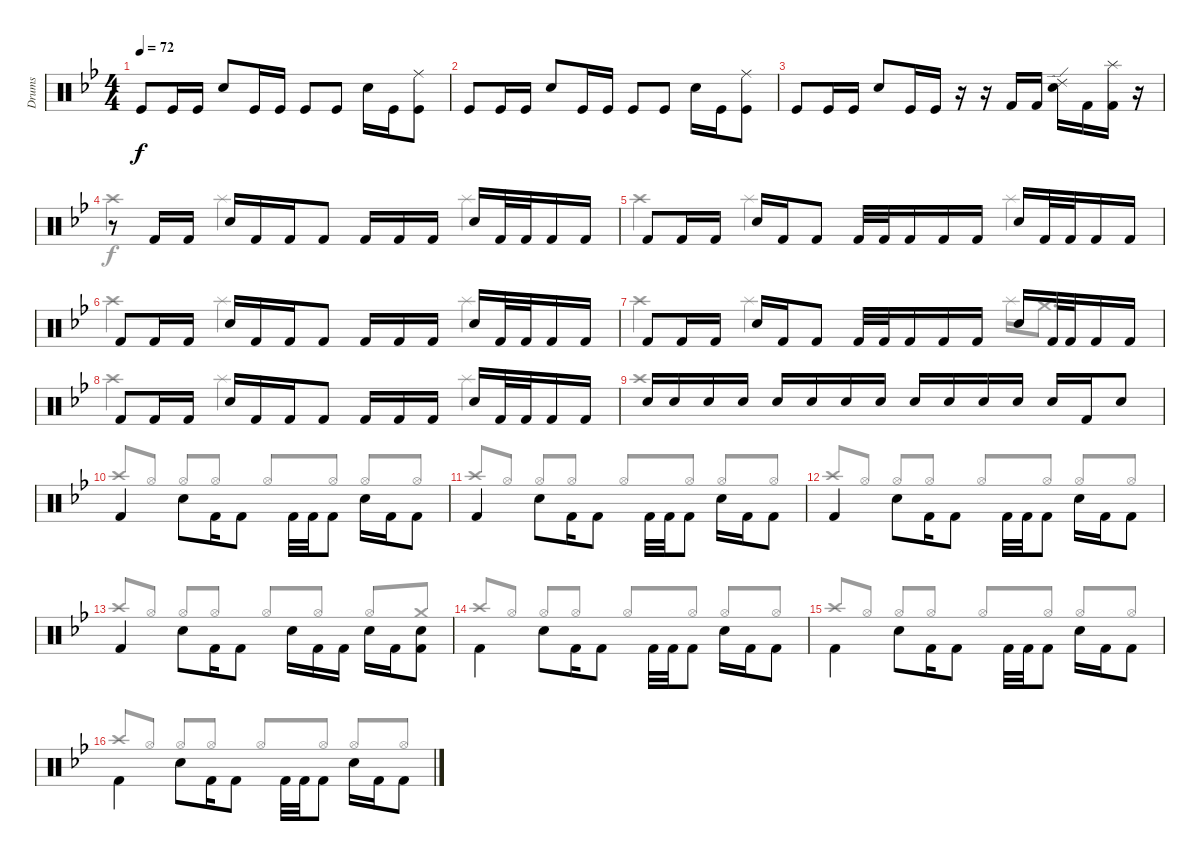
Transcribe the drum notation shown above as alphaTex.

\track ("Drums" "Drums") {instrument percussion}
\staff {score}
\articulation defaults
\voice
\ts (4 4)
\tempo 72
\clef neutral
\ks gminor "Kick (hit)".8{dy f} "Kick (hit)".16 "Kick (hit)".16 "Snare (hit) 2".8 "Kick (hit)".16 "Kick (hit)".16 "Kick (hit)".8 "Kick (hit)".8 "Snare (hit) 2".16 "Kick (hit)".16
("Ride (middle)" "Kick (hit)").8 |
"Kick (hit)".8 "Kick (hit)".16 "Kick (hit)".16 "Snare (hit) 2".8 "Kick (hit)".16 "Kick (hit)".16 "Kick (hit)".8 "Kick (hit)".8 "Snare (hit) 2".16 "Kick (hit)".16 ("Ride (middle)" "Kick (hit)").8 |
"Kick (hit)".8 "Kick (hit)".16 "Kick (hit)".16 "Snare (hit) 2".8 "Kick (hit)".16 "Kick (hit)".16 r.16 r.16 "Kick (hit) 2".16 "Kick (hit) 2".16 ("Ride (edge) 2" "Electric Snare (hit)").16 "Kick (hit) 2".16 ("Splash (hit)" "Kick (hit) 2").16 r.16 |
r.8 "Kick (hit) 2".16 "Kick (hit) 2".16 "Electric Snare (hit)".16 "Kick (hit) 2".16 "Kick (hit) 2".16 "Kick (hit) 2".8 "Kick (hit) 2".16 "Kick (hit) 2".16 "Kick (hit) 2".16 "Electric Snare (hit)".16 "Kick (hit) 2".32 "Kick (hit) 2".32 "Kick (hit) 2".16 "Kick (hit) 2".16 |
"Kick (hit) 2".8 "Kick (hit) 2".16 "Kick (hit) 2".16 "Electric Snare (hit)".16 "Kick (hit) 2".16 "Kick (hit) 2".8 "Kick (hit) 2".32 "Kick (hit) 2".32 "Kick (hit) 2".16 "Kick (hit) 2".16 "Kick (hit) 2".16 "Electric Snare (hit)".16 "Kick (hit) 2".32 "Kick (hit) 2".32 "Kick (hit) 2".16 "Kick (hit) 2".16 |
"Kick (hit) 2".8 "Kick (hit) 2".16 "Kick (hit) 2".16 "Electric Snare (hit)".16 "Kick (hit) 2".16 "Kick (hit) 2".16 "Kick (hit) 2".8 "Kick (hit) 2".16 "Kick (hit) 2".16 "Kick (hit) 2".16 "Electric Snare (hit)".16 "Kick (hit) 2".32 "Kick (hit) 2".32 "Kick (hit) 2".16 "Kick (hit) 2".16 |
"Kick (hit) 2".8 "Kick (hit) 2".16 "Kick (hit) 2".16 "Electric Snare (hit)".16 "Kick (hit) 2".16 "Kick (hit) 2".8 "Kick (hit) 2".32 "Kick (hit) 2".32 "Kick (hit) 2".16 "Kick (hit) 2".16 "Kick (hit) 2".16 "Electric Snare (hit)".16 "Kick (hit) 2".32 "Kick (hit) 2".32 "Kick (hit) 2".16 "Kick (hit) 2".16 |
"Kick (hit) 2".8 "Kick (hit) 2".16 "Kick (hit) 2".16 "Electric Snare (hit)".16 "Kick (hit) 2".16 "Kick (hit) 2".16 "Kick (hit) 2".8 "Kick (hit) 2".16 "Kick (hit) 2".16 "Kick (hit) 2".16 "Electric Snare (hit)".16 "Kick (hit) 2".32 "Kick (hit) 2".32 "Kick (hit) 2".16 "Kick (hit) 2".16 |
"Snare (hit) 2".16{volume 6} "Snare (hit) 2".16{volume 11} "Snare (hit) 2".16 "Snare (hit) 2".16 "Snare (hit) 2".16 "Snare (hit) 2".16 "Snare (hit) 2".16 "Snare (hit) 2".16 "Snare (hit) 2".16 "Snare (hit) 2".16 "Snare (hit) 2".16 "Snare (hit) 2".16 "Snare (hit) 2".16 "Kick (hit) 2".16 "Electric Snare (hit)".8 |
"Kick (hit) 2".4{beam Up} "Electric Snare (hit)".8{beam Down} "Kick (hit) 2".16{beam Down} "Kick (hit) 2".8{beam Down} "Kick (hit) 2".32{beam Down} "Kick (hit) 2".32{beam Down} "Kick (hit) 2".8{beam Down} "Electric Snare (hit)".16{beam Down} "Kick (hit) 2".16{beam Down} "Kick (hit) 2".8{beam Down} |
"Kick (hit) 2".4{beam Up} "Electric Snare (hit)".8{beam Down} "Kick (hit) 2".16{beam Down} "Kick (hit) 2".8{beam Down} "Kick (hit) 2".32{beam Down} "Kick (hit) 2".32{beam Down} "Kick (hit) 2".8{beam Down} "Electric Snare (hit)".16{beam Down} "Kick (hit) 2".16{beam Down} "Kick (hit) 2".8{beam Down} |
"Kick (hit) 2".4{beam Up} "Electric Snare (hit)".8{beam Down} "Kick (hit) 2".16{beam Down} "Kick (hit) 2".8{beam Down} "Kick (hit) 2".32{beam Down} "Kick (hit) 2".32{beam Down} "Kick (hit) 2".8{beam Down} "Electric Snare (hit)".16{beam Down} "Kick (hit) 2".16{beam Down} "Kick (hit) 2".8{beam Down} |
"Kick (hit) 2".4{beam Up} "Electric Snare (hit)".8{beam Down} "Kick (hit) 2".16{beam Down} "Kick (hit) 2".8{beam Down} "Electric Snare (hit)".16{beam Down} "Kick (hit) 2".16{beam Down} "Kick (hit) 2".16{beam Down} "Electric Snare (hit)".16{beam Down} "Kick (hit) 2".16{beam Down} ("Electric Snare (hit)" "Kick (hit) 2").8{beam Down} |
"Kick (hit) 2".4{beam Down} "Electric Snare (hit)".8{beam Down} "Kick (hit) 2".16{beam Down} "Kick (hit) 2".8{beam Down} "Kick (hit) 2".32{beam Down} "Kick (hit) 2".32{beam Down} "Kick (hit) 2".8{beam Down} "Electric Snare (hit)".16{beam Down} "Kick (hit) 2".16{beam Down} "Kick (hit) 2".8{beam Down} |
"Kick (hit) 2".4{beam Down} "Electric Snare (hit)".8{beam Down} "Kick (hit) 2".16{beam Down} "Kick (hit) 2".8{beam Down} "Kick (hit) 2".32{beam Down} "Kick (hit) 2".32{beam Down} "Kick (hit) 2".8{beam Down} "Electric Snare (hit)".16{beam Down} "Kick (hit) 2".16{beam Down} "Kick (hit) 2".8{beam Down} |
"Kick (hit) 2".4{beam Down} "Electric Snare (hit)".8{beam Down} "Kick (hit) 2".16{beam Down} "Kick (hit) 2".8{beam Down} "Kick (hit) 2".32{beam Down} "Kick (hit) 2".32{beam Down} "Kick (hit) 2".8{beam Down} "Electric Snare (hit)".16{beam Down} "Kick (hit) 2".16{beam Down} "Kick (hit) 2".8{beam Down}
\voice
\clef neutral
\ottava regular
\simile none
\ks gminor
|
|
|
"Crash high (hit)".4 "Splash (hit)".2 "Splash (hit)".4 |
"Crash high (hit)".4 "Splash (hit)".2 "Splash (hit)".4 |
"Crash high (hit)".4 "Splash (hit)".2 "Splash (hit)".4 |
"Crash high (hit)".4 "Splash (hit)".2 "Splash (hit)".16 "Crash medium (hit)".8{d} |
"Crash high (hit)".4 "Splash (hit)".2 "Splash (hit)".4 |
"Crash high (hit)".1 |
"Crash high (hit)".8{beam Up} "Hi-Hat (open)".8{beam Up} "Hi-Hat (open)".8{beam Up} "Hi-Hat (open)".8{beam Up} "Hi-Hat (open)".8{beam Up} "Hi-Hat (open)".8{beam Up} "Hi-Hat (open)".8{beam Up} "Hi-Hat (open)".8{beam Up} |
"Crash high (hit)".8{beam Up} "Hi-Hat (open)".8{beam Up} "Hi-Hat (open)".8{beam Up} "Hi-Hat (open)".8{beam Up} "Hi-Hat (open)".8{beam Up} "Hi-Hat (open)".8{beam Up} "Hi-Hat (open)".8{beam Up} "Hi-Hat (open)".8{beam Up} |
"Crash high (hit)".8{beam Up} "Hi-Hat (open)".8{beam Up} "Hi-Hat (open)".8{beam Up} "Hi-Hat (open)".8{beam Up} "Hi-Hat (open)".8{beam Up} "Hi-Hat (open)".8{beam Up} "Hi-Hat (open)".8{beam Up} "Hi-Hat (open)".8{beam Up} |
"Crash high (hit)".8{beam Up} "Hi-Hat (open)".8{beam Up} "Hi-Hat (open)".8{beam Up} "Hi-Hat (open)".8{beam Up} "Hi-Hat (open)".8{beam Up} "Hi-Hat (open)".8{beam Up} "Hi-Hat (open)".8{beam Up} "Crash medium (hit)".8{beam Up} |
"Crash high (hit)".8{beam Up} "Hi-Hat (open)".8{beam Up} "Hi-Hat (open)".8{beam Up} "Hi-Hat (open)".8{beam Up} "Hi-Hat (open)".8{beam Up} "Hi-Hat (open)".8{beam Up} "Hi-Hat (open)".8{beam Up} "Hi-Hat (open)".8{beam Up} |
"Crash high (hit)".8{beam Up} "Hi-Hat (open)".8{beam Up} "Hi-Hat (open)".8{beam Up} "Hi-Hat (open)".8{beam Up} "Hi-Hat (open)".8{beam Up} "Hi-Hat (open)".8{beam Up} "Hi-Hat (open)".8{beam Up} "Hi-Hat (open)".8{beam Up} |
"Crash high (hit)".8{beam Up} "Hi-Hat (open)".8{beam Up} "Hi-Hat (open)".8{beam Up} "Hi-Hat (open)".8{beam Up} "Hi-Hat (open)".8{beam Up} "Hi-Hat (open)".8{beam Up} "Hi-Hat (open)".8{beam Up} "Hi-Hat (open)".8{beam Up}
